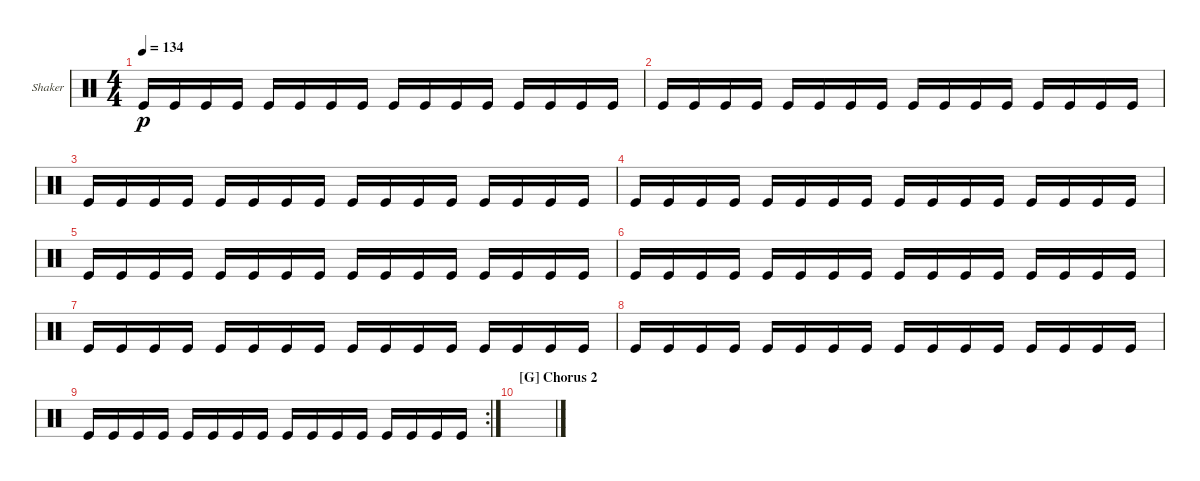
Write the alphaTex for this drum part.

\defaultSystemsLayout 4
\bracketExtendMode groupsimilarinstruments
\firstSystemTrackNameOrientation horizontal
\otherSystemsTrackNameOrientation horizontal
\track ("Shaker" "Shaker") {instrument percussion}
\staff {score}
\articulation defaults
\ts (4 4)
\tempo 134
\clef neutral
\ks c "Kick (hit)".16{dy p} "Kick (hit)".16 "Kick (hit)".16 "Kick (hit)".16 "Kick (hit)".16 "Kick (hit)".16 "Kick (hit)".16 "Kick (hit)".16 "Kick (hit)".16 "Kick (hit)".16 "Kick (hit)".16 "Kick (hit)".16 "Kick (hit)".16 "Kick (hit)".16 "Kick (hit)".16 "Kick (hit)".16
|
"Kick (hit)".16 "Kick (hit)".16 "Kick (hit)".16 "Kick (hit)".16 "Kick (hit)".16 "Kick (hit)".16 "Kick (hit)".16 "Kick (hit)".16 "Kick (hit)".16 "Kick (hit)".16 "Kick (hit)".16 "Kick (hit)".16 "Kick (hit)".16 "Kick (hit)".16 "Kick (hit)".16 "Kick (hit)".16 |
"Kick (hit)".16 "Kick (hit)".16 "Kick (hit)".16 "Kick (hit)".16 "Kick (hit)".16 "Kick (hit)".16 "Kick (hit)".16 "Kick (hit)".16 "Kick (hit)".16 "Kick (hit)".16 "Kick (hit)".16 "Kick (hit)".16 "Kick (hit)".16 "Kick (hit)".16 "Kick (hit)".16 "Kick (hit)".16 |
"Kick (hit)".16 "Kick (hit)".16 "Kick (hit)".16 "Kick (hit)".16 "Kick (hit)".16 "Kick (hit)".16 "Kick (hit)".16 "Kick (hit)".16 "Kick (hit)".16 "Kick (hit)".16 "Kick (hit)".16 "Kick (hit)".16 "Kick (hit)".16 "Kick (hit)".16 "Kick (hit)".16 "Kick (hit)".16 |
"Kick (hit)".16 "Kick (hit)".16 "Kick (hit)".16 "Kick (hit)".16 "Kick (hit)".16 "Kick (hit)".16 "Kick (hit)".16 "Kick (hit)".16 "Kick (hit)".16 "Kick (hit)".16 "Kick (hit)".16 "Kick (hit)".16 "Kick (hit)".16 "Kick (hit)".16 "Kick (hit)".16 "Kick (hit)".16 |
"Kick (hit)".16 "Kick (hit)".16 "Kick (hit)".16 "Kick (hit)".16 "Kick (hit)".16 "Kick (hit)".16 "Kick (hit)".16 "Kick (hit)".16 "Kick (hit)".16 "Kick (hit)".16 "Kick (hit)".16 "Kick (hit)".16 "Kick (hit)".16 "Kick (hit)".16 "Kick (hit)".16 "Kick (hit)".16 |
"Kick (hit)".16 "Kick (hit)".16 "Kick (hit)".16 "Kick (hit)".16 "Kick (hit)".16 "Kick (hit)".16 "Kick (hit)".16 "Kick (hit)".16 "Kick (hit)".16 "Kick (hit)".16 "Kick (hit)".16 "Kick (hit)".16 "Kick (hit)".16 "Kick (hit)".16 "Kick (hit)".16 "Kick (hit)".16 |
"Kick (hit)".16 "Kick (hit)".16 "Kick (hit)".16 "Kick (hit)".16 "Kick (hit)".16 "Kick (hit)".16 "Kick (hit)".16 "Kick (hit)".16 "Kick (hit)".16 "Kick (hit)".16 "Kick (hit)".16 "Kick (hit)".16 "Kick (hit)".16 "Kick (hit)".16 "Kick (hit)".16 "Kick (hit)".16 |
\rc 2 "Kick (hit)".16 "Kick (hit)".16 "Kick (hit)".16 "Kick (hit)".16 "Kick (hit)".16 "Kick (hit)".16 "Kick (hit)".16 "Kick (hit)".16 "Kick (hit)".16 "Kick (hit)".16 "Kick (hit)".16 "Kick (hit)".16 "Kick (hit)".16 "Kick (hit)".16 "Kick (hit)".16 "Kick (hit)".16
|
\section ("G" "Chorus 2")
